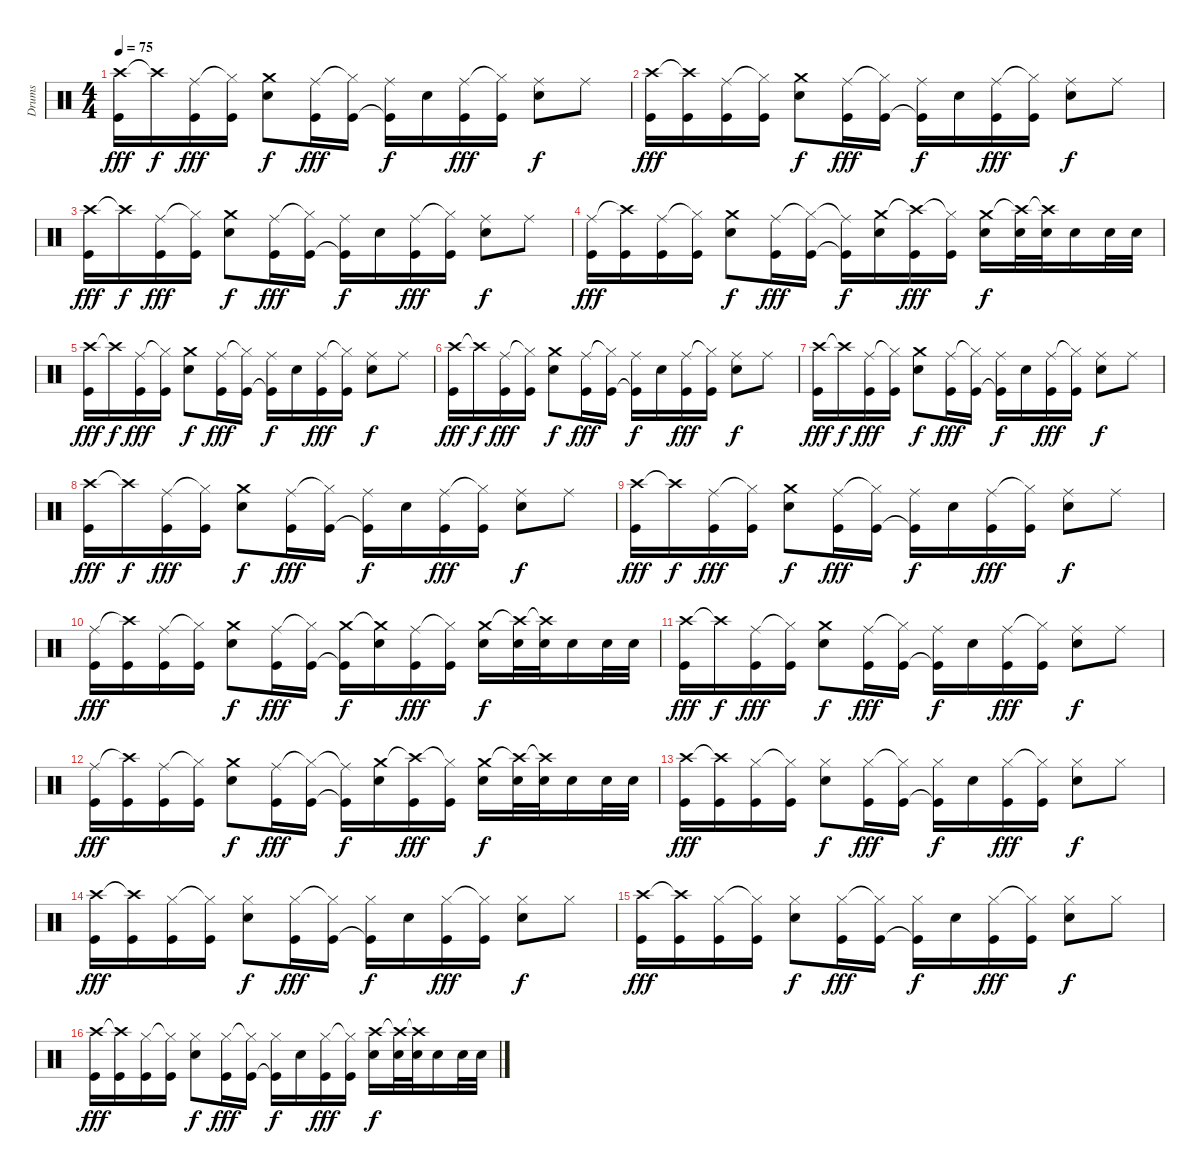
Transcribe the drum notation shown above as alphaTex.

\track ("Drums" "Drums") {instrument percussion}
\staff {score}
\articulation defaults
\ts (4 4)
\tempo 75
\clef neutral
\ks c
("Crash high (hit)" "Kick (hit)").16{dy fff} "Crash high (hit)"{t}.16{dy f} ("Ride (middle)" "Kick (hit)").16{dy fff} ("Hi-Hat (closed)"{t} "Kick (hit)").16 ("Crash medium (hit)" "Snare (hit) 2").8{dy f} ("Ride (middle)" "Kick (hit)").16{dy fff} ("Hi-Hat (closed)"{t} "Kick (hit)").16 ("Ride (middle)" "Kick (hit)"{t}).16{dy f} "Snare (hit) 2".16 ("Ride (middle)" "Kick (hit)").16{dy fff} ("Hi-Hat (closed)"{t} "Kick (hit)").16 ("Ride (middle)" "Snare (hit) 2").8{dy f} "Ride (middle)".8 |
("Crash high (hit)" "Kick (hit)").16{dy fff} ("Crash high (hit)"{t} "Kick (hit)").16 ("Ride (middle)" "Kick (hit)").16 ("Hi-Hat (closed)"{t} "Kick (hit)").16 ("Crash medium (hit)" "Snare (hit) 2").8{dy f} ("Ride (middle)" "Kick (hit)").16{dy fff} ("Hi-Hat (closed)"{t} "Kick (hit)").16 ("Ride (middle)" "Kick (hit)"{t}).16{dy f} "Snare (hit) 2".16 ("Ride (middle)" "Kick (hit)").16{dy fff} ("Hi-Hat (closed)"{t} "Kick (hit)").16 ("Ride (middle)" "Snare (hit) 2").8{dy f} "Ride (middle)".8 |
("Crash high (hit)" "Kick (hit)").16{dy fff} "Crash high (hit)"{t}.16{dy f} ("Ride (middle)" "Kick (hit)").16{dy fff} ("Hi-Hat (closed)"{t} "Kick (hit)").16 ("Crash medium (hit)" "Snare (hit) 2").8{dy f} ("Ride (middle)" "Kick (hit)").16{dy fff} ("Hi-Hat (closed)"{t} "Kick (hit)").16 ("Ride (middle)" "Kick (hit)"{t}).16{dy f} "Snare (hit) 2".16 ("Ride (middle)" "Kick (hit)").16{dy fff} ("Hi-Hat (closed)"{t} "Kick (hit)").16 ("Ride (middle)" "Snare (hit) 2").8{dy f} "Ride (middle)".8 |
("Ride (middle)" "Kick (hit)").16{dy fff} ("Crash high (hit)"{t} "Kick (hit)").16 ("Ride (middle)" "Kick (hit)").16 ("Hi-Hat (closed)"{t} "Kick (hit)").16 ("Crash medium (hit)" "Snare (hit) 2").8{dy f} ("Ride (middle)" "Kick (hit)").16{dy fff} ("Hi-Hat (closed)"{t} "Kick (hit)").16 ("Ride (middle)"{t} "Kick (hit)"{t}).16{dy f} ("Crash medium (hit)" "Snare (hit) 2").16 ("Crash high (hit)"{t} "Kick (hit)").16{dy fff} ("Hi-Hat (closed)"{t} "Kick (hit)").16 ("Crash medium (hit)" "Snare (hit) 2").16{dy f} ("Crash high (hit)"{t} "Snare (hit) 2").32 ("Crash high (hit)"{t} "Snare (hit) 2").32 "Snare (hit) 2".16 "Snare (hit) 2".32 "Snare (hit) 2".32 |
("Crash high (hit)" "Kick (hit)").16{dy fff} "Crash high (hit)"{t}.16{dy f} ("Ride (middle)" "Kick (hit)").16{dy fff} ("Hi-Hat (closed)"{t} "Kick (hit)").16 ("Crash medium (hit)" "Snare (hit) 2").8{dy f} ("Ride (middle)" "Kick (hit)").16{dy fff} ("Hi-Hat (closed)"{t} "Kick (hit)").16 ("Ride (middle)" "Kick (hit)"{t}).16{dy f} "Snare (hit) 2".16 ("Ride (middle)" "Kick (hit)").16{dy fff} ("Hi-Hat (closed)"{t} "Kick (hit)").16 ("Ride (middle)" "Snare (hit) 2").8{dy f} "Ride (middle)".8 |
("Crash high (hit)" "Kick (hit)").16{dy fff} "Crash high (hit)"{t}.16{dy f} ("Ride (middle)" "Kick (hit)").16{dy fff} ("Hi-Hat (closed)"{t} "Kick (hit)").16 ("Crash medium (hit)" "Snare (hit) 2").8{dy f} ("Ride (middle)" "Kick (hit)").16{dy fff} ("Hi-Hat (closed)"{t} "Kick (hit)").16 ("Ride (middle)" "Kick (hit)"{t}).16{dy f} "Snare (hit) 2".16 ("Ride (middle)" "Kick (hit)").16{dy fff} ("Hi-Hat (closed)"{t} "Kick (hit)").16 ("Ride (middle)" "Snare (hit) 2").8{dy f} "Ride (middle)".8 |
("Crash high (hit)" "Kick (hit)").16{dy fff} "Crash high (hit)"{t}.16{dy f} ("Ride (middle)" "Kick (hit)").16{dy fff} ("Hi-Hat (closed)"{t} "Kick (hit)").16 ("Crash medium (hit)" "Snare (hit) 2").8{dy f} ("Ride (middle)" "Kick (hit)").16{dy fff} ("Hi-Hat (closed)"{t} "Kick (hit)").16 ("Ride (middle)" "Kick (hit)"{t}).16{dy f} "Snare (hit) 2".16 ("Ride (middle)" "Kick (hit)").16{dy fff} ("Hi-Hat (closed)"{t} "Kick (hit)").16 ("Ride (middle)" "Snare (hit) 2").8{dy f} "Ride (middle)".8 |
("Crash high (hit)" "Kick (hit)").16{dy fff} "Crash high (hit)"{t}.16{dy f} ("Ride (middle)" "Kick (hit)").16{dy fff} ("Hi-Hat (closed)"{t} "Kick (hit)").16 ("Crash medium (hit)" "Snare (hit) 2").8{dy f} ("Ride (middle)" "Kick (hit)").16{dy fff} ("Hi-Hat (closed)"{t} "Kick (hit)").16 ("Ride (middle)" "Kick (hit)"{t}).16{dy f} "Snare (hit) 2".16 ("Ride (middle)" "Kick (hit)").16{dy fff} ("Hi-Hat (closed)"{t} "Kick (hit)").16 ("Ride (middle)" "Snare (hit) 2").8{dy f} "Ride (middle)".8 |
("Crash high (hit)" "Kick (hit)").16{dy fff} "Crash high (hit)"{t}.16{dy f} ("Ride (middle)" "Kick (hit)").16{dy fff} ("Hi-Hat (closed)"{t} "Kick (hit)").16 ("Crash medium (hit)" "Snare (hit) 2").8{dy f} ("Ride (middle)" "Kick (hit)").16{dy fff} ("Hi-Hat (closed)"{t} "Kick (hit)").16 ("Ride (middle)" "Kick (hit)"{t}).16{dy f} "Snare (hit) 2".16 ("Ride (middle)" "Kick (hit)").16{dy fff} ("Hi-Hat (closed)"{t} "Kick (hit)").16 ("Ride (middle)" "Snare (hit) 2").8{dy f} "Ride (middle)".8 |
("Ride (middle)" "Kick (hit)").16{dy fff} ("Crash high (hit)"{t} "Kick (hit)").16 ("Ride (middle)" "Kick (hit)").16 ("Hi-Hat (closed)"{t} "Kick (hit)").16 ("Crash medium (hit)" "Snare (hit) 2").8{dy f} ("Ride (middle)" "Kick (hit)").16{dy fff} ("Hi-Hat (closed)"{t} "Kick (hit)").16 ("Crash medium (hit)" "Kick (hit)"{t}).16{dy f} ("Crash medium (hit)"{t} "Snare (hit) 2").16 ("Ride (middle)" "Kick (hit)").16{dy fff} ("Hi-Hat (closed)"{t} "Kick (hit)").16 ("Crash medium (hit)" "Snare (hit) 2").16{dy f} ("Crash high (hit)"{t} "Snare (hit) 2").32 ("Crash high (hit)"{t} "Snare (hit) 2").32 "Snare (hit) 2".16 "Snare (hit) 2".32 "Snare (hit) 2".32 |
("Crash high (hit)" "Kick (hit)").16{dy fff} "Crash high (hit)"{t}.16{dy f} ("Ride (middle)" "Kick (hit)").16{dy fff} ("Hi-Hat (closed)"{t} "Kick (hit)").16 ("Crash medium (hit)" "Snare (hit) 2").8{dy f} ("Ride (middle)" "Kick (hit)").16{dy fff} ("Hi-Hat (closed)"{t} "Kick (hit)").16 ("Ride (middle)" "Kick (hit)"{t}).16{dy f} "Snare (hit) 2".16 ("Ride (middle)" "Kick (hit)").16{dy fff} ("Hi-Hat (closed)"{t} "Kick (hit)").16 ("Ride (middle)" "Snare (hit) 2").8{dy f} "Ride (middle)".8 |
("Ride (middle)" "Kick (hit)").16{dy fff} ("Crash high (hit)"{t} "Kick (hit)").16 ("Ride (middle)" "Kick (hit)").16 ("Hi-Hat (closed)"{t} "Kick (hit)").16 ("Crash medium (hit)" "Snare (hit) 2").8{dy f} ("Ride (middle)" "Kick (hit)").16{dy fff} ("Hi-Hat (closed)"{t} "Kick (hit)").16 ("Ride (middle)"{t} "Kick (hit)"{t}).16{dy f} ("Crash medium (hit)" "Snare (hit) 2").16 ("Crash high (hit)"{t} "Kick (hit)").16{dy fff} ("Hi-Hat (closed)"{t} "Kick (hit)").16 ("Crash medium (hit)" "Snare (hit) 2").16{dy f} ("Crash high (hit)"{t} "Snare (hit) 2").32 ("Crash high (hit)"{t} "Snare (hit) 2").32 "Snare (hit) 2".16 "Snare (hit) 2".32 "Snare (hit) 2".32 |
("Crash high (hit)" "Kick (hit)").16{dy fff} ("Crash high (hit)"{t} "Kick (hit)").16 ("Hi-Hat (closed)" "Kick (hit)").16 ("Hi-Hat (closed)"{t} "Kick (hit)").16 ("Hi-Hat (closed)" "Snare (hit) 2").8{dy f} ("Hi-Hat (closed)" "Kick (hit)").16{dy fff} ("Hi-Hat (closed)"{t} "Kick (hit)").16 ("Hi-Hat (closed)" "Kick (hit)"{t}).16{dy f} "Snare (hit) 2".16 ("Hi-Hat (closed)" "Kick (hit)").16{dy fff} ("Hi-Hat (closed)"{t} "Kick (hit)").16 ("Hi-Hat (closed)" "Snare (hit) 2").8{dy f} "Hi-Hat (closed)".8 |
("Crash high (hit)" "Kick (hit)").16{dy fff} ("Crash high (hit)"{t} "Kick (hit)").16 ("Hi-Hat (closed)" "Kick (hit)").16 ("Hi-Hat (closed)"{t} "Kick (hit)").16 ("Hi-Hat (closed)" "Snare (hit) 2").8{dy f} ("Hi-Hat (closed)" "Kick (hit)").16{dy fff} ("Hi-Hat (closed)"{t} "Kick (hit)").16 ("Hi-Hat (closed)" "Kick (hit)"{t}).16{dy f} "Snare (hit) 2".16 ("Hi-Hat (closed)" "Kick (hit)").16{dy fff} ("Hi-Hat (closed)"{t} "Kick (hit)").16 ("Hi-Hat (closed)" "Snare (hit) 2").8{dy f} "Hi-Hat (closed)".8 |
("Crash high (hit)" "Kick (hit)").16{dy fff} ("Crash high (hit)"{t} "Kick (hit)").16 ("Hi-Hat (closed)" "Kick (hit)").16 ("Hi-Hat (closed)"{t} "Kick (hit)").16 ("Hi-Hat (closed)" "Snare (hit) 2").8{dy f} ("Hi-Hat (closed)" "Kick (hit)").16{dy fff} ("Hi-Hat (closed)"{t} "Kick (hit)").16 ("Hi-Hat (closed)" "Kick (hit)"{t}).16{dy f} "Snare (hit) 2".16 ("Hi-Hat (closed)" "Kick (hit)").16{dy fff} ("Hi-Hat (closed)"{t} "Kick (hit)").16 ("Hi-Hat (closed)" "Snare (hit) 2").8{dy f} "Hi-Hat (closed)".8 |
("Crash high (hit)" "Kick (hit)").16{dy fff} ("Crash high (hit)"{t} "Kick (hit)").16 ("Hi-Hat (closed)" "Kick (hit)").16 ("Hi-Hat (closed)"{t} "Kick (hit)").16 ("Hi-Hat (closed)" "Snare (hit) 2").8{dy f} ("Hi-Hat (closed)" "Kick (hit)").16{dy fff} ("Hi-Hat (closed)"{t} "Kick (hit)").16 ("Hi-Hat (closed)" "Kick (hit)"{t}).16{dy f} "Snare (hit) 2".16 ("Hi-Hat (closed)" "Kick (hit)").16{dy fff} ("Hi-Hat (closed)"{t} "Kick (hit)").16 ("Crash high (hit)" "Snare (hit) 2").16{dy f} ("Crash high (hit)"{t} "Snare (hit) 2").32 ("Crash high (hit)"{t} "Snare (hit) 2").32 "Snare (hit) 2".16 "Snare (hit) 2".32 "Snare (hit) 2".32
